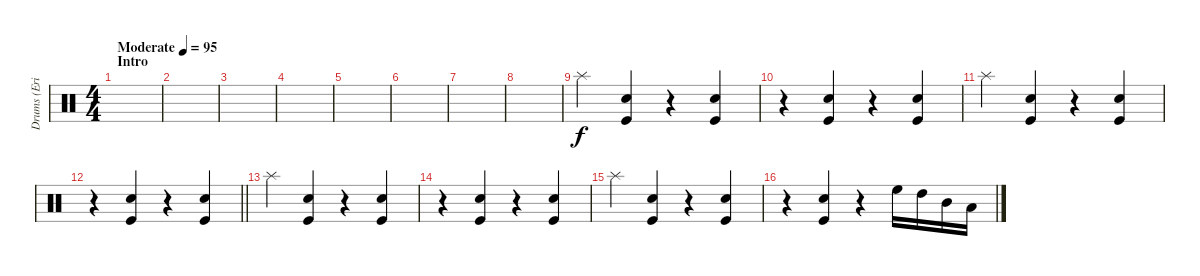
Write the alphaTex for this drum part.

\track ("Drums (Eric Singer)" "Drums (Eri") {instrument percussion}
\staff {score}
\articulation defaults
\ts (4 4)
\section ("" "Intro")
\tempo (95 "Moderate")
\clef neutral
\ks c
|
|
|
|
|
|
|
|
"Splash (hit)".4 ("Snare (hit) 2" "Kick (hit)").4 r.4 ("Snare (hit) 2" "Kick (hit)").4 |
r.4 ("Snare (hit) 2" "Kick (hit)").4 r.4 ("Snare (hit) 2" "Kick (hit)").4 |
"Splash (hit)".4 ("Snare (hit) 2" "Kick (hit)").4 r.4 ("Snare (hit) 2" "Kick (hit)").4 |
\barLineRight lightlight
r.4 ("Snare (hit) 2" "Kick (hit)").4 r.4 ("Snare (hit) 2" "Kick (hit)").4 |
"Splash (hit)".4 ("Snare (hit) 2" "Kick (hit)").4 r.4 ("Snare (hit) 2" "Kick (hit)").4 |
r.4 ("Snare (hit) 2" "Kick (hit)").4 r.4 ("Snare (hit) 2" "Kick (hit)").4 |
"Splash (hit)".4 ("Snare (hit) 2" "Kick (hit)").4 r.4 ("Snare (hit) 2" "Kick (hit)").4 |
r.4 ("Snare (hit) 2" "Kick (hit)").4 r.4 "High Floor Tom (hit)".16 "High Tom (hit)".16 "Mid Tom (hit)".16 "Low Tom (hit)".16
